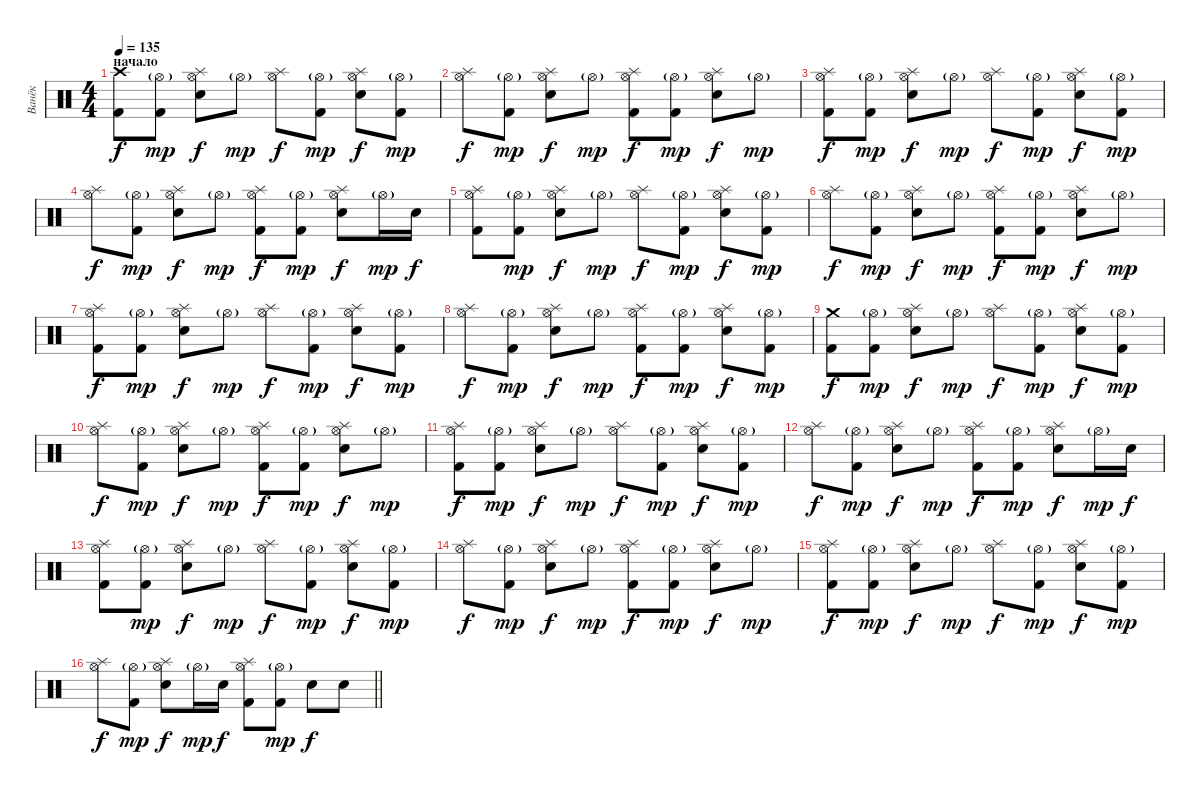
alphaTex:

\track ("Ванёк" "Ванёк") {instrument percussion}
\staff {score}
\articulation defaults
\ts (4 4)
\section ("" "начало")
\tempo 135
\clef neutral
\ks c
("Crash high (hit)" "Kick (hit) 2").8{dy f} ("Hi-Hat (open)"{g} "Kick (hit) 2").8{dy mp} ("Hi-Hat (open)" "Splash (hit)" "Snare (hit) 2").8{dy f} "Hi-Hat (open)"{g}.8{dy mp} ("Hi-Hat (open)" "Splash (hit)").8{dy f} ("Hi-Hat (open)"{g} "Kick (hit) 2").8{dy mp} ("Hi-Hat (open)" "Splash (hit)" "Snare (hit) 2").8{dy f} ("Hi-Hat (open)"{g} "Kick (hit) 2").8{dy mp} |
("Hi-Hat (open)" "Splash (hit)").8{dy f} ("Hi-Hat (open)"{g} "Kick (hit) 2").8{dy mp} ("Hi-Hat (open)" "Splash (hit)" "Snare (hit) 2").8{dy f} "Hi-Hat (open)"{g}.8{dy mp} ("Hi-Hat (open)" "Splash (hit)" "Kick (hit) 2").8{dy f} ("Hi-Hat (open)"{g} "Kick (hit) 2").8{dy mp} ("Hi-Hat (open)" "Splash (hit)" "Snare (hit) 2").8{dy f} "Hi-Hat (open)"{g}.8{dy mp} |
("Hi-Hat (open)" "Splash (hit)" "Kick (hit) 2").8{dy f} ("Hi-Hat (open)"{g} "Kick (hit) 2").8{dy mp} ("Hi-Hat (open)" "Splash (hit)" "Snare (hit) 2").8{dy f} "Hi-Hat (open)"{g}.8{dy mp} ("Hi-Hat (open)" "Splash (hit)").8{dy f} ("Hi-Hat (open)"{g} "Kick (hit) 2").8{dy mp} ("Hi-Hat (open)" "Splash (hit)" "Snare (hit) 2").8{dy f} ("Hi-Hat (open)"{g} "Kick (hit) 2").8{dy mp} |
("Hi-Hat (open)" "Splash (hit)").8{dy f} ("Hi-Hat (open)"{g} "Kick (hit) 2").8{dy mp} ("Hi-Hat (open)" "Splash (hit)" "Snare (hit) 2").8{dy f} "Hi-Hat (open)"{g}.8{dy mp} ("Hi-Hat (open)" "Splash (hit)" "Kick (hit) 2").8{dy f} ("Hi-Hat (open)"{g} "Kick (hit) 2").8{dy mp} ("Hi-Hat (open)" "Splash (hit)" "Snare (hit) 2").8{dy f} "Hi-Hat (open)"{g}.16{dy mp} "Snare (hit) 2".16{dy f} |
("Hi-Hat (open)" "Splash (hit)" "Kick (hit) 2").8 ("Hi-Hat (open)"{g} "Kick (hit) 2").8{dy mp} ("Hi-Hat (open)" "Splash (hit)" "Snare (hit) 2").8{dy f} "Hi-Hat (open)"{g}.8{dy mp} ("Hi-Hat (open)" "Splash (hit)").8{dy f} ("Hi-Hat (open)"{g} "Kick (hit) 2").8{dy mp} ("Hi-Hat (open)" "Splash (hit)" "Snare (hit) 2").8{dy f} ("Hi-Hat (open)"{g} "Kick (hit) 2").8{dy mp} |
("Hi-Hat (open)" "Splash (hit)").8{dy f} ("Hi-Hat (open)"{g} "Kick (hit) 2").8{dy mp} ("Hi-Hat (open)" "Splash (hit)" "Snare (hit) 2").8{dy f} "Hi-Hat (open)"{g}.8{dy mp} ("Hi-Hat (open)" "Splash (hit)" "Kick (hit) 2").8{dy f} ("Hi-Hat (open)"{g} "Kick (hit) 2").8{dy mp} ("Hi-Hat (open)" "Splash (hit)" "Snare (hit) 2").8{dy f} "Hi-Hat (open)"{g}.8{dy mp} |
("Hi-Hat (open)" "Splash (hit)" "Kick (hit) 2").8{dy f} ("Hi-Hat (open)"{g} "Kick (hit) 2").8{dy mp} ("Hi-Hat (open)" "Splash (hit)" "Snare (hit) 2").8{dy f} "Hi-Hat (open)"{g}.8{dy mp} ("Hi-Hat (open)" "Splash (hit)").8{dy f} ("Hi-Hat (open)"{g} "Kick (hit) 2").8{dy mp} ("Hi-Hat (open)" "Splash (hit)" "Snare (hit) 2").8{dy f} ("Hi-Hat (open)"{g} "Kick (hit) 2").8{dy mp} |
("Hi-Hat (open)" "Splash (hit)").8{dy f} ("Hi-Hat (open)"{g} "Kick (hit) 2").8{dy mp} ("Hi-Hat (open)" "Splash (hit)" "Snare (hit) 2").8{dy f} "Hi-Hat (open)"{g}.8{dy mp} ("Hi-Hat (open)" "Splash (hit)" "Kick (hit) 2").8{dy f} ("Hi-Hat (open)"{g} "Kick (hit) 2").8{dy mp} ("Hi-Hat (open)" "Splash (hit)" "Snare (hit) 2").8{dy f} ("Hi-Hat (open)"{g} "Kick (hit) 2").8{dy mp} |
("Crash medium (hit)" "Kick (hit) 2").8{dy f} ("Hi-Hat (open)"{g} "Kick (hit) 2").8{dy mp} ("Hi-Hat (open)" "Splash (hit)" "Snare (hit) 2").8{dy f} "Hi-Hat (open)"{g}.8{dy mp} ("Hi-Hat (open)" "Splash (hit)").8{dy f} ("Hi-Hat (open)"{g} "Kick (hit) 2").8{dy mp} ("Hi-Hat (open)" "Splash (hit)" "Snare (hit) 2").8{dy f} ("Hi-Hat (open)"{g} "Kick (hit) 2").8{dy mp} |
("Hi-Hat (open)" "Splash (hit)").8{dy f} ("Hi-Hat (open)"{g} "Kick (hit) 2").8{dy mp} ("Hi-Hat (open)" "Splash (hit)" "Snare (hit) 2").8{dy f} "Hi-Hat (open)"{g}.8{dy mp} ("Hi-Hat (open)" "Splash (hit)" "Kick (hit) 2").8{dy f} ("Hi-Hat (open)"{g} "Kick (hit) 2").8{dy mp} ("Hi-Hat (open)" "Splash (hit)" "Snare (hit) 2").8{dy f} "Hi-Hat (open)"{g}.8{dy mp} |
("Hi-Hat (open)" "Splash (hit)" "Kick (hit) 2").8{dy f} ("Hi-Hat (open)"{g} "Kick (hit) 2").8{dy mp} ("Hi-Hat (open)" "Splash (hit)" "Snare (hit) 2").8{dy f} "Hi-Hat (open)"{g}.8{dy mp} ("Hi-Hat (open)" "Splash (hit)").8{dy f} ("Hi-Hat (open)"{g} "Kick (hit) 2").8{dy mp} ("Hi-Hat (open)" "Splash (hit)" "Snare (hit) 2").8{dy f} ("Hi-Hat (open)"{g} "Kick (hit) 2").8{dy mp} |
("Hi-Hat (open)" "Splash (hit)").8{dy f} ("Hi-Hat (open)"{g} "Kick (hit) 2").8{dy mp} ("Hi-Hat (open)" "Splash (hit)" "Snare (hit) 2").8{dy f} "Hi-Hat (open)"{g}.8{dy mp} ("Hi-Hat (open)" "Splash (hit)" "Kick (hit) 2").8{dy f} ("Hi-Hat (open)"{g} "Kick (hit) 2").8{dy mp} ("Hi-Hat (open)" "Splash (hit)" "Snare (hit) 2").8{dy f} "Hi-Hat (open)"{g}.16{dy mp} "Snare (hit) 2".16{dy f} |
("Hi-Hat (open)" "Splash (hit)" "Kick (hit) 2").8 ("Hi-Hat (open)"{g} "Kick (hit) 2").8{dy mp} ("Hi-Hat (open)" "Splash (hit)" "Snare (hit) 2").8{dy f} "Hi-Hat (open)"{g}.8{dy mp} ("Hi-Hat (open)" "Splash (hit)").8{dy f} ("Hi-Hat (open)"{g} "Kick (hit) 2").8{dy mp} ("Hi-Hat (open)" "Splash (hit)" "Snare (hit) 2").8{dy f} ("Hi-Hat (open)"{g} "Kick (hit) 2").8{dy mp} |
("Hi-Hat (open)" "Splash (hit)").8{dy f} ("Hi-Hat (open)"{g} "Kick (hit) 2").8{dy mp} ("Hi-Hat (open)" "Splash (hit)" "Snare (hit) 2").8{dy f} "Hi-Hat (open)"{g}.8{dy mp} ("Hi-Hat (open)" "Splash (hit)" "Kick (hit) 2").8{dy f} ("Hi-Hat (open)"{g} "Kick (hit) 2").8{dy mp} ("Hi-Hat (open)" "Splash (hit)" "Snare (hit) 2").8{dy f} "Hi-Hat (open)"{g}.8{dy mp} |
("Hi-Hat (open)" "Splash (hit)" "Kick (hit) 2").8{dy f} ("Hi-Hat (open)"{g} "Kick (hit) 2").8{dy mp} ("Hi-Hat (open)" "Splash (hit)" "Snare (hit) 2").8{dy f} "Hi-Hat (open)"{g}.8{dy mp} ("Hi-Hat (open)" "Splash (hit)").8{dy f} ("Hi-Hat (open)"{g} "Kick (hit) 2").8{dy mp} ("Hi-Hat (open)" "Splash (hit)" "Snare (hit) 2").8{dy f} ("Hi-Hat (open)"{g} "Kick (hit) 2").8{dy mp} |
\barLineRight lightlight
("Hi-Hat (open)" "Splash (hit)").8{dy f} ("Hi-Hat (open)"{g} "Kick (hit) 2").8{dy mp} ("Hi-Hat (open)" "Splash (hit)" "Snare (hit) 2").8{dy f} "Hi-Hat (open)"{g}.16{dy mp} "Snare (hit) 2".16{dy f} ("Hi-Hat (open)" "Splash (hit)" "Kick (hit) 2").8 ("Hi-Hat (open)"{g} "Kick (hit) 2").8{dy mp} "Snare (hit) 2".8{dy f} "Snare (hit) 2".8
